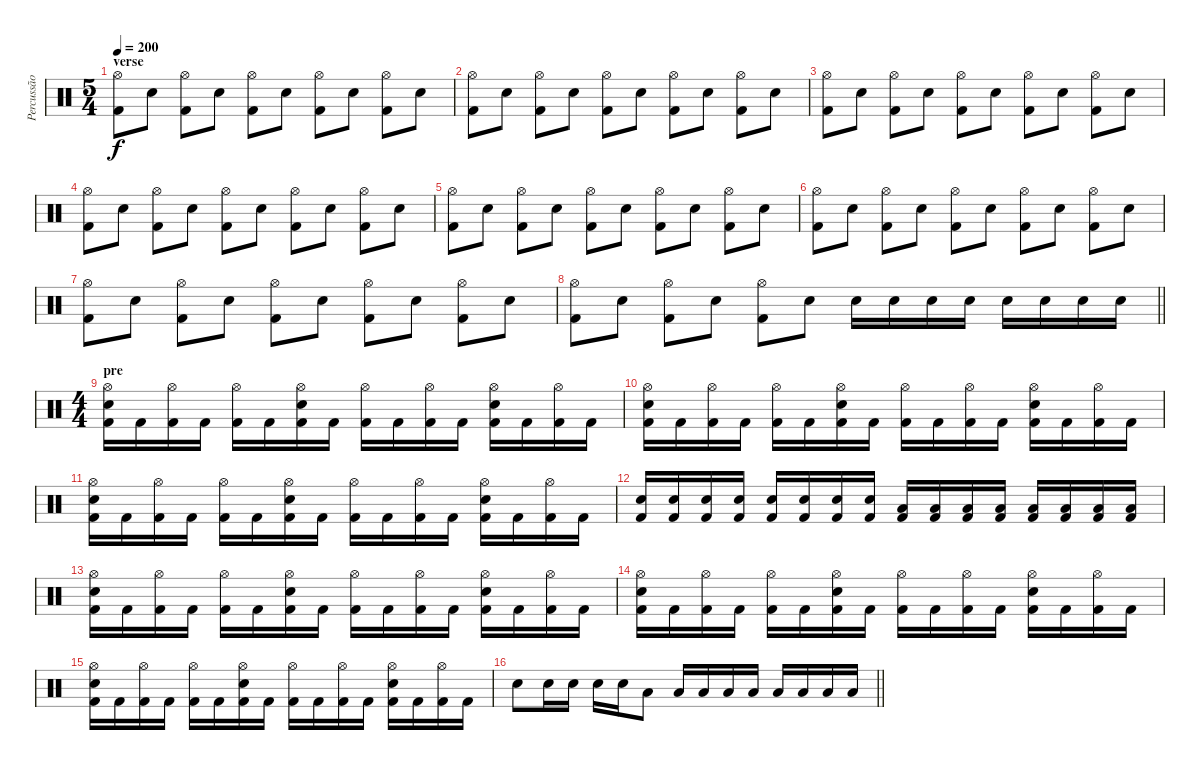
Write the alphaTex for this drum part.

\track ("Percussão" "Percussão") {instrument percussion}
\staff {score}
\articulation defaults
\ts (5 4)
\section ("" "verse")
\tempo 200
\clef neutral
\ks c
("Kick (hit) 2" "Hi-Hat (open)").8{dy f} "Snare (hit) 2".8 ("Kick (hit) 2" "Hi-Hat (open)").8 "Snare (hit) 2".8 ("Kick (hit) 2" "Hi-Hat (open)").8 "Snare (hit) 2".8 ("Kick (hit) 2" "Hi-Hat (open)").8 "Snare (hit) 2".8 ("Kick (hit) 2" "Hi-Hat (open)").8 "Snare (hit) 2".8 |
("Kick (hit) 2" "Hi-Hat (open)").8 "Snare (hit) 2".8 ("Kick (hit) 2" "Hi-Hat (open)").8 "Snare (hit) 2".8 ("Kick (hit) 2" "Hi-Hat (open)").8 "Snare (hit) 2".8 ("Kick (hit) 2" "Hi-Hat (open)").8 "Snare (hit) 2".8 ("Kick (hit) 2" "Hi-Hat (open)").8 "Snare (hit) 2".8 |
("Kick (hit) 2" "Hi-Hat (open)").8 "Snare (hit) 2".8 ("Kick (hit) 2" "Hi-Hat (open)").8 "Snare (hit) 2".8 ("Kick (hit) 2" "Hi-Hat (open)").8 "Snare (hit) 2".8 ("Kick (hit) 2" "Hi-Hat (open)").8 "Snare (hit) 2".8 ("Kick (hit) 2" "Hi-Hat (open)").8 "Snare (hit) 2".8 |
("Kick (hit) 2" "Hi-Hat (open)").8 "Snare (hit) 2".8 ("Kick (hit) 2" "Hi-Hat (open)").8 "Snare (hit) 2".8 ("Kick (hit) 2" "Hi-Hat (open)").8 "Snare (hit) 2".8 ("Kick (hit) 2" "Hi-Hat (open)").8 "Snare (hit) 2".8 ("Kick (hit) 2" "Hi-Hat (open)").8 "Snare (hit) 2".8 |
("Kick (hit) 2" "Hi-Hat (open)").8 "Snare (hit) 2".8 ("Kick (hit) 2" "Hi-Hat (open)").8 "Snare (hit) 2".8 ("Kick (hit) 2" "Hi-Hat (open)").8 "Snare (hit) 2".8 ("Kick (hit) 2" "Hi-Hat (open)").8 "Snare (hit) 2".8 ("Kick (hit) 2" "Hi-Hat (open)").8 "Snare (hit) 2".8 |
("Kick (hit) 2" "Hi-Hat (open)").8 "Snare (hit) 2".8 ("Kick (hit) 2" "Hi-Hat (open)").8 "Snare (hit) 2".8 ("Kick (hit) 2" "Hi-Hat (open)").8 "Snare (hit) 2".8 ("Kick (hit) 2" "Hi-Hat (open)").8 "Snare (hit) 2".8 ("Kick (hit) 2" "Hi-Hat (open)").8 "Snare (hit) 2".8 |
("Kick (hit) 2" "Hi-Hat (open)").8 "Snare (hit) 2".8 ("Kick (hit) 2" "Hi-Hat (open)").8 "Snare (hit) 2".8 ("Kick (hit) 2" "Hi-Hat (open)").8 "Snare (hit) 2".8 ("Kick (hit) 2" "Hi-Hat (open)").8 "Snare (hit) 2".8 ("Kick (hit) 2" "Hi-Hat (open)").8 "Snare (hit) 2".8 |
\barLineRight lightlight
("Kick (hit) 2" "Hi-Hat (open)").8 "Snare (hit) 2".8 ("Kick (hit) 2" "Hi-Hat (open)").8 "Snare (hit) 2".8 ("Kick (hit) 2" "Hi-Hat (open)").8 "Snare (hit) 2".8 "Snare (hit) 2".16 "Snare (hit) 2".16 "Snare (hit) 2".16 "Snare (hit) 2".16 "Snare (hit) 2".16 "Snare (hit) 2".16 "Snare (hit) 2".16 "Snare (hit) 2".16 |
\ts (4 4)
\section ("" "pre")
("Kick (hit) 2" "Hi-Hat (open)" "Snare (hit) 2").16 "Kick (hit) 2".16 ("Kick (hit) 2" "Hi-Hat (open)").16 "Kick (hit) 2".16 ("Kick (hit) 2" "Hi-Hat (open)").16 "Kick (hit) 2".16 ("Kick (hit) 2" "Hi-Hat (open)" "Snare (hit) 2").16 "Kick (hit) 2".16 ("Kick (hit) 2" "Hi-Hat (open)").16 "Kick (hit) 2".16 ("Kick (hit) 2" "Hi-Hat (open)").16 "Kick (hit) 2".16 ("Kick (hit) 2" "Hi-Hat (open)" "Snare (hit) 2").16 "Kick (hit) 2".16 ("Kick (hit) 2" "Hi-Hat (open)").16 "Kick (hit) 2".16 |
("Kick (hit) 2" "Hi-Hat (open)" "Snare (hit) 2").16 "Kick (hit) 2".16 ("Kick (hit) 2" "Hi-Hat (open)").16 "Kick (hit) 2".16 ("Kick (hit) 2" "Hi-Hat (open)").16 "Kick (hit) 2".16 ("Kick (hit) 2" "Hi-Hat (open)" "Snare (hit) 2").16 "Kick (hit) 2".16 ("Kick (hit) 2" "Hi-Hat (open)").16 "Kick (hit) 2".16 ("Kick (hit) 2" "Hi-Hat (open)").16 "Kick (hit) 2".16 ("Kick (hit) 2" "Hi-Hat (open)" "Snare (hit) 2").16 "Kick (hit) 2".16 ("Kick (hit) 2" "Hi-Hat (open)").16 "Kick (hit) 2".16 |
("Kick (hit) 2" "Hi-Hat (open)" "Snare (hit) 2").16 "Kick (hit) 2".16 ("Kick (hit) 2" "Hi-Hat (open)").16 "Kick (hit) 2".16 ("Kick (hit) 2" "Hi-Hat (open)").16 "Kick (hit) 2".16 ("Kick (hit) 2" "Hi-Hat (open)" "Snare (hit) 2").16 "Kick (hit) 2".16 ("Kick (hit) 2" "Hi-Hat (open)").16 "Kick (hit) 2".16 ("Kick (hit) 2" "Hi-Hat (open)").16 "Kick (hit) 2".16 ("Kick (hit) 2" "Hi-Hat (open)" "Snare (hit) 2").16 "Kick (hit) 2".16 ("Kick (hit) 2" "Hi-Hat (open)").16 "Kick (hit) 2".16 |
("Kick (hit) 2" "Snare (hit) 2").16 ("Kick (hit) 2" "Snare (hit) 2").16 ("Kick (hit) 2" "Snare (hit) 2").16 ("Kick (hit) 2" "Snare (hit) 2").16 ("Kick (hit) 2" "Snare (hit) 2").16 ("Kick (hit) 2" "Snare (hit) 2").16 ("Kick (hit) 2" "Snare (hit) 2").16 ("Kick (hit) 2" "Snare (hit) 2").16 ("Kick (hit) 2" "Low Tom (hit)").16 ("Kick (hit) 2" "Low Tom (hit)").16 ("Kick (hit) 2" "Low Tom (hit)").16 ("Kick (hit) 2" "Low Tom (hit)").16 ("Kick (hit) 2" "Low Tom (hit)").16 ("Kick (hit) 2" "Low Tom (hit)").16 ("Kick (hit) 2" "Low Tom (hit)").16 ("Kick (hit) 2" "Low Tom (hit)").16 |
("Kick (hit) 2" "Hi-Hat (open)" "Snare (hit) 2").16 "Kick (hit) 2".16 ("Kick (hit) 2" "Hi-Hat (open)").16 "Kick (hit) 2".16 ("Kick (hit) 2" "Hi-Hat (open)").16 "Kick (hit) 2".16 ("Kick (hit) 2" "Hi-Hat (open)" "Snare (hit) 2").16 "Kick (hit) 2".16 ("Kick (hit) 2" "Hi-Hat (open)").16 "Kick (hit) 2".16 ("Kick (hit) 2" "Hi-Hat (open)").16 "Kick (hit) 2".16 ("Kick (hit) 2" "Hi-Hat (open)" "Snare (hit) 2").16 "Kick (hit) 2".16 ("Kick (hit) 2" "Hi-Hat (open)").16 "Kick (hit) 2".16 |
("Kick (hit) 2" "Hi-Hat (open)" "Snare (hit) 2").16 "Kick (hit) 2".16 ("Kick (hit) 2" "Hi-Hat (open)").16 "Kick (hit) 2".16 ("Kick (hit) 2" "Hi-Hat (open)").16 "Kick (hit) 2".16 ("Kick (hit) 2" "Hi-Hat (open)" "Snare (hit) 2").16 "Kick (hit) 2".16 ("Kick (hit) 2" "Hi-Hat (open)").16 "Kick (hit) 2".16 ("Kick (hit) 2" "Hi-Hat (open)").16 "Kick (hit) 2".16 ("Kick (hit) 2" "Hi-Hat (open)" "Snare (hit) 2").16 "Kick (hit) 2".16 ("Kick (hit) 2" "Hi-Hat (open)").16 "Kick (hit) 2".16 |
("Kick (hit) 2" "Hi-Hat (open)" "Snare (hit) 2").16 "Kick (hit) 2".16 ("Kick (hit) 2" "Hi-Hat (open)").16 "Kick (hit) 2".16 ("Kick (hit) 2" "Hi-Hat (open)").16 "Kick (hit) 2".16 ("Kick (hit) 2" "Hi-Hat (open)" "Snare (hit) 2").16 "Kick (hit) 2".16 ("Kick (hit) 2" "Hi-Hat (open)").16 "Kick (hit) 2".16 ("Kick (hit) 2" "Hi-Hat (open)").16 "Kick (hit) 2".16 ("Kick (hit) 2" "Hi-Hat (open)" "Snare (hit) 2").16 "Kick (hit) 2".16 ("Kick (hit) 2" "Hi-Hat (open)").16 "Kick (hit) 2".16 |
\barLineRight lightlight "Snare (hit) 2".8 "Snare (hit) 2".16 "Snare (hit) 2".16 "Snare (hit) 2".16 "Snare (hit) 2".16 "Low Tom (hit)".8 "Low Tom (hit)".16 "Low Tom (hit)".16 "Low Tom (hit)".16 "Low Tom (hit)".16 "Low Floor Tom (hit)".16 "Low Floor Tom (hit)".16 "Low Floor Tom (hit)".16 "Low Floor Tom (hit)".16
